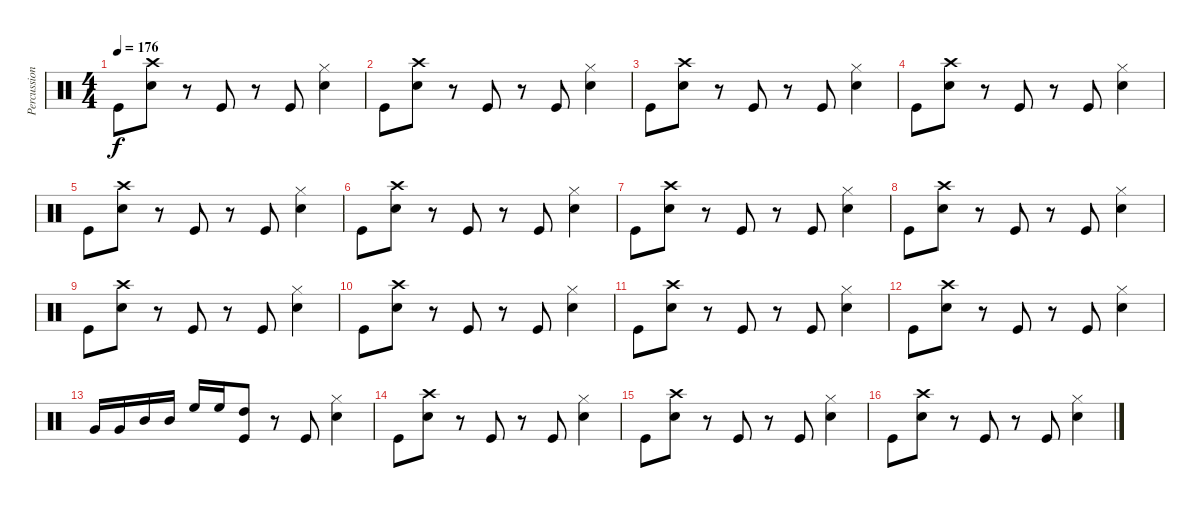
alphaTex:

\track ("Percussions" "Percussion") {instrument percussion}
\staff {score}
\articulation defaults
\ts (4 4)
\tempo 176
\clef neutral
\ks c "Kick (hit)".8{dy f}
("Crash high (hit)" "Snare (hit) 2").8 r.8 "Kick (hit)".8 r.8 "Kick (hit)".8 ("Hi-Hat (closed)" "Snare (hit) 2").4 |
"Kick (hit)".8 ("Crash high (hit)" "Snare (hit) 2").8 r.8 "Kick (hit)".8 r.8 "Kick (hit)".8 ("Hi-Hat (closed)" "Snare (hit) 2").4 |
"Kick (hit)".8 ("Crash high (hit)" "Snare (hit) 2").8 r.8 "Kick (hit)".8 r.8 "Kick (hit)".8 ("Hi-Hat (closed)" "Snare (hit) 2").4 |
"Kick (hit)".8 ("Crash high (hit)" "Snare (hit) 2").8 r.8 "Kick (hit)".8 r.8 "Kick (hit)".8 ("Hi-Hat (closed)" "Snare (hit) 2").4 |
"Kick (hit)".8 ("Crash high (hit)" "Snare (hit) 2").8 r.8 "Kick (hit)".8 r.8 "Kick (hit)".8 ("Hi-Hat (closed)" "Snare (hit) 2").4 |
"Kick (hit)".8 ("Crash high (hit)" "Snare (hit) 2").8 r.8 "Kick (hit)".8 r.8 "Kick (hit)".8 ("Hi-Hat (closed)" "Snare (hit) 2").4 |
"Kick (hit)".8 ("Crash high (hit)" "Snare (hit) 2").8 r.8 "Kick (hit)".8 r.8 "Kick (hit)".8 ("Hi-Hat (closed)" "Snare (hit) 2").4 |
"Kick (hit)".8 ("Crash high (hit)" "Snare (hit) 2").8 r.8 "Kick (hit)".8 r.8 "Kick (hit)".8 ("Hi-Hat (closed)" "Snare (hit) 2").4 |
"Kick (hit)".8 ("Crash high (hit)" "Snare (hit) 2").8 r.8 "Kick (hit)".8 r.8 "Kick (hit)".8 ("Hi-Hat (closed)" "Snare (hit) 2").4 |
"Kick (hit)".8 ("Crash high (hit)" "Snare (hit) 2").8 r.8 "Kick (hit)".8 r.8 "Kick (hit)".8 ("Hi-Hat (closed)" "Snare (hit) 2").4 |
"Kick (hit)".8 ("Crash high (hit)" "Snare (hit) 2").8 r.8 "Kick (hit)".8 r.8 "Kick (hit)".8 ("Hi-Hat (closed)" "Snare (hit) 2").4 |
"Kick (hit)".8 ("Crash high (hit)" "Snare (hit) 2").8 r.8 "Kick (hit)".8 r.8 "Kick (hit)".8 ("Hi-Hat (closed)" "Snare (hit) 2").4 |
"Very Low Tom (hit)".16 "Very Low Tom (hit)".16 "Mid Tom (hit)".16 "Mid Tom (hit)".16 "High Floor Tom (hit)".16 "High Floor Tom (hit)".16 ("High Tom (hit)" "Kick (hit)").8 r.8 "Kick (hit)".8 ("Hi-Hat (closed)" "Snare (hit) 2").4 |
"Kick (hit)".8 ("Crash high (hit)" "Snare (hit) 2").8 r.8 "Kick (hit)".8 r.8 "Kick (hit)".8 ("Hi-Hat (closed)" "Snare (hit) 2").4 |
"Kick (hit)".8 ("Crash high (hit)" "Snare (hit) 2").8 r.8 "Kick (hit)".8 r.8 "Kick (hit)".8 ("Hi-Hat (closed)" "Snare (hit) 2").4 |
"Kick (hit)".8 ("Crash high (hit)" "Snare (hit) 2").8 r.8 "Kick (hit)".8 r.8 "Kick (hit)".8 ("Hi-Hat (closed)" "Snare (hit) 2").4
